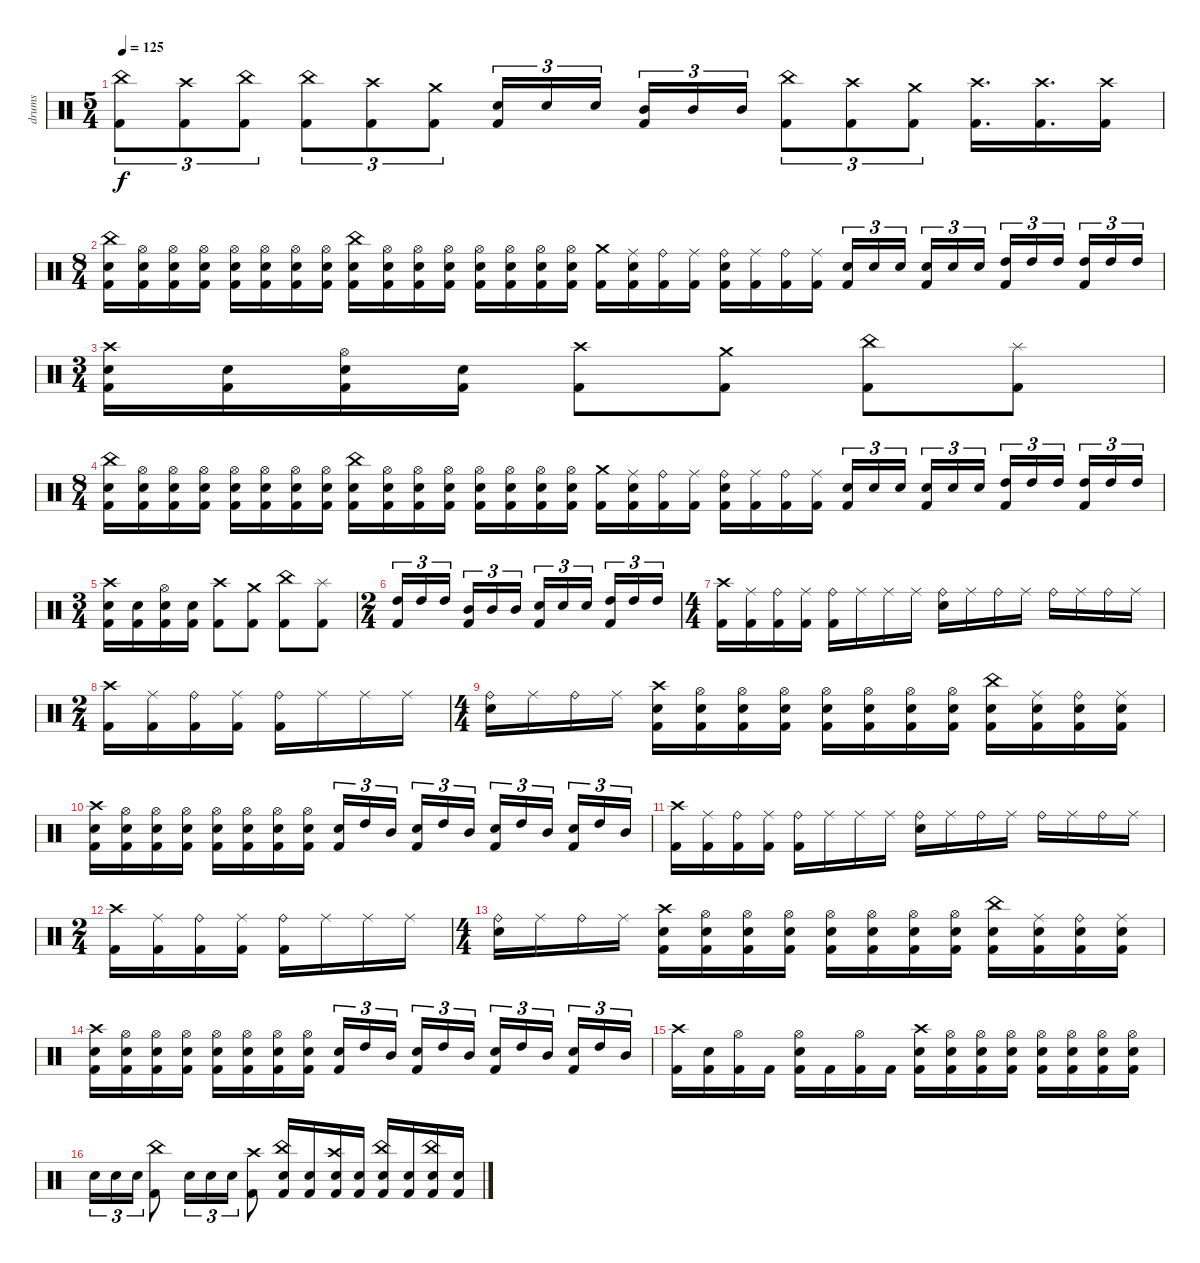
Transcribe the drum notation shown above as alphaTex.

\track (" drums" " drums") {mute instrument percussion}
\staff {score}
\articulation defaults
\ts (5 4)
\tempo 125
\clef neutral
\ks c
("Kick (hit) 2" "China (hit)").8{tu (3 2) dy f} ("Kick (hit) 2" "Crash high (hit)").8{tu (3 2)} ("Kick (hit) 2" "China (hit)").8{tu (3 2)} ("Kick (hit) 2" "China (hit)").8{tu (3 2)} ("Kick (hit) 2" "Crash high (hit)").8{tu (3 2)} ("Kick (hit) 2" "Crash medium (hit)").8{tu (3 2)} ("Kick (hit) 2" "Electric Snare (hit)").16{tu (3 2)} "Electric Snare (hit)".16{tu (3 2)} "Electric Snare (hit)".16{tu (3 2) beam splitsecondary} ("Kick (hit) 2" "Mid Tom (hit)").16{tu (3 2)} "Mid Tom (hit)".16{tu (3 2)} "Mid Tom (hit)".16{tu (3 2)} ("Kick (hit) 2" "China (hit)").8{tu (3 2)} ("Kick (hit) 2" "Crash high (hit)").8{tu (3 2)} ("Kick (hit) 2" "Crash medium (hit)").8{tu (3 2)} ("Crash high (hit)" "Kick (hit) 2").16{d} ("Crash high (hit)" "Kick (hit) 2").16{d} ("Crash high (hit)" "Kick (hit) 2").16 |
\ts (8 4)
("China (hit)" "Electric Snare (hit)" "Kick (hit) 2").16 ("Hi-Hat (open)" "Electric Snare (hit)" "Kick (hit) 2").16 ("Hi-Hat (open)" "Electric Snare (hit)" "Kick (hit) 2").16 ("Hi-Hat (open)" "Electric Snare (hit)" "Kick (hit) 2").16 ("Hi-Hat (open)" "Electric Snare (hit)" "Kick (hit) 2").16 ("Hi-Hat (open)" "Electric Snare (hit)" "Kick (hit) 2").16 ("Hi-Hat (open)" "Electric Snare (hit)" "Kick (hit) 2").16 ("Hi-Hat (open)" "Electric Snare (hit)" "Kick (hit) 2").16 ("China (hit)" "Electric Snare (hit)" "Kick (hit) 2").16 ("Hi-Hat (open)" "Electric Snare (hit)" "Kick (hit) 2").16 ("Hi-Hat (open)" "Electric Snare (hit)" "Kick (hit) 2").16 ("Hi-Hat (open)" "Electric Snare (hit)" "Kick (hit) 2").16 ("Hi-Hat (open)" "Electric Snare (hit)" "Kick (hit) 2").16 ("Hi-Hat (open)" "Electric Snare (hit)" "Kick (hit) 2").16 ("Hi-Hat (open)" "Electric Snare (hit)" "Kick (hit) 2").16 ("Hi-Hat (open)" "Electric Snare (hit)" "Kick (hit) 2").16 ("Crash medium (hit)" "Kick (hit) 2").16 ("Ride (middle)" "Electric Snare (hit)" "Kick (hit) 2").16 ("Ride (bell)" "Kick (hit) 2").16 ("Ride (middle)" "Kick (hit) 2").16 ("Ride (bell)" "Electric Snare (hit)" "Kick (hit) 2").16 ("Ride (middle)" "Kick (hit) 2").16 ("Ride (bell)" "Kick (hit) 2").16 ("Ride (middle)" "Kick (hit) 2").16 ("Electric Snare (hit)" "Kick (hit) 2").16{tu (3 2)} "Electric Snare (hit)".16{tu (3 2)} "Electric Snare (hit)".16{tu (3 2) beam splitsecondary} ("Kick (hit) 2" "Electric Snare (hit)").16{tu (3 2)} "Electric Snare (hit)".16{tu (3 2)} "Electric Snare (hit)".16{tu (3 2)} ("High Tom (hit)" "Kick (hit) 2").16{tu (3 2)} "High Tom (hit)".16{tu (3 2)} "High Tom (hit)".16{tu (3 2) beam splitsecondary} ("Kick (hit) 2" "High Tom (hit)").16{tu (3 2)} "High Tom (hit)".16{tu (3 2)} "High Tom (hit)".16{tu (3 2)} |
\ts (3 4)
("Electric Snare (hit)" "Crash high (hit)" "Kick (hit) 2").16 ("Electric Snare (hit)" "Kick (hit) 2").16 ("Electric Snare (hit)" "Hi-Hat (open)" "Kick (hit) 2").16 ("Electric Snare (hit)" "Kick (hit) 2").16 ("Kick (hit) 2" "Crash high (hit)").8 ("Kick (hit) 2" "Crash medium (hit)").8 ("Kick (hit) 2" "China (hit)").8 ("Kick (hit) 2" "Splash (hit)").8 |
\ts (8 4)
("China (hit)" "Electric Snare (hit)" "Kick (hit) 2").16 ("Hi-Hat (open)" "Electric Snare (hit)" "Kick (hit) 2").16 ("Hi-Hat (open)" "Electric Snare (hit)" "Kick (hit) 2").16 ("Hi-Hat (open)" "Electric Snare (hit)" "Kick (hit) 2").16 ("Hi-Hat (open)" "Electric Snare (hit)" "Kick (hit) 2").16 ("Hi-Hat (open)" "Electric Snare (hit)" "Kick (hit) 2").16 ("Hi-Hat (open)" "Electric Snare (hit)" "Kick (hit) 2").16 ("Hi-Hat (open)" "Electric Snare (hit)" "Kick (hit) 2").16 ("China (hit)" "Electric Snare (hit)" "Kick (hit) 2").16 ("Hi-Hat (open)" "Electric Snare (hit)" "Kick (hit) 2").16 ("Hi-Hat (open)" "Electric Snare (hit)" "Kick (hit) 2").16 ("Hi-Hat (open)" "Electric Snare (hit)" "Kick (hit) 2").16 ("Hi-Hat (open)" "Electric Snare (hit)" "Kick (hit) 2").16 ("Hi-Hat (open)" "Electric Snare (hit)" "Kick (hit) 2").16 ("Hi-Hat (open)" "Electric Snare (hit)" "Kick (hit) 2").16 ("Hi-Hat (open)" "Electric Snare (hit)" "Kick (hit) 2").16 ("Crash medium (hit)" "Kick (hit) 2").16 ("Ride (middle)" "Electric Snare (hit)" "Kick (hit) 2").16 ("Ride (bell)" "Kick (hit) 2").16 ("Ride (middle)" "Kick (hit) 2").16 ("Ride (bell)" "Electric Snare (hit)" "Kick (hit) 2").16 ("Ride (middle)" "Kick (hit) 2").16 ("Ride (bell)" "Kick (hit) 2").16 ("Ride (middle)" "Kick (hit) 2").16 ("Electric Snare (hit)" "Kick (hit) 2").16{tu (3 2)} "Electric Snare (hit)".16{tu (3 2)} "Electric Snare (hit)".16{tu (3 2) beam splitsecondary} ("Kick (hit) 2" "Electric Snare (hit)").16{tu (3 2)} "Electric Snare (hit)".16{tu (3 2)} "Electric Snare (hit)".16{tu (3 2)} ("High Tom (hit)" "Kick (hit) 2").16{tu (3 2)} "High Tom (hit)".16{tu (3 2)} "High Tom (hit)".16{tu (3 2) beam splitsecondary} ("Kick (hit) 2" "High Tom (hit)").16{tu (3 2)} "High Tom (hit)".16{tu (3 2)} "High Tom (hit)".16{tu (3 2)} |
\ts (3 4)
("Electric Snare (hit)" "Crash high (hit)" "Kick (hit) 2").16 ("Electric Snare (hit)" "Kick (hit) 2").16 ("Electric Snare (hit)" "Hi-Hat (open)" "Kick (hit) 2").16 ("Electric Snare (hit)" "Kick (hit) 2").16 ("Kick (hit) 2" "Crash high (hit)").8 ("Kick (hit) 2" "Crash medium (hit)").8 ("Kick (hit) 2" "China (hit)").8 ("Kick (hit) 2" "Splash (hit)").8 |
\ts (2 4)
("High Tom (hit)" "Kick (hit) 2").16{tu (3 2)} "High Tom (hit)".16{tu (3 2)} "High Tom (hit)".16{tu (3 2) beam splitsecondary} ("Mid Tom (hit)" "Kick (hit) 2").16{tu (3 2)} "Mid Tom (hit)".16{tu (3 2)} "Mid Tom (hit)".16{tu (3 2)} ("Electric Snare (hit)" "Kick (hit) 2").16{tu (3 2)} "Electric Snare (hit)".16{tu (3 2)} "Electric Snare (hit)".16{tu (3 2) beam splitsecondary} ("High Tom (hit)" "Kick (hit) 2").16{tu (3 2)} "High Tom (hit)".16{tu (3 2)} "High Tom (hit)".16{tu (3 2)} |
\ts (4 4)
("Kick (hit) 2" "Crash high (hit)").16 ("Kick (hit) 2" "Ride (middle)").16 ("Kick (hit) 2" "Ride (bell)").16 ("Kick (hit) 2" "Ride (middle)").16 ("Kick (hit) 2" "Ride (bell)").16 "Ride (middle)".16 "Ride (middle)".16 "Ride (middle)".16 ("Electric Snare (hit)" "Ride (bell)").16 "Ride (middle)".16 "Ride (bell)".16 "Ride (middle)".16 "Ride (bell)".16 "Ride (middle)".16 "Ride (bell)".16 "Ride (middle)".16 |
\ts (2 4)
("Kick (hit) 2" "Crash high (hit)").16 ("Kick (hit) 2" "Ride (middle)").16 ("Kick (hit) 2" "Ride (bell)").16 ("Kick (hit) 2" "Ride (middle)").16 ("Kick (hit) 2" "Ride (bell)").16 "Ride (middle)".16 "Ride (middle)".16 "Ride (middle)".16 |
\ts (4 4)
("Electric Snare (hit)" "Ride (bell)").16 "Ride (middle)".16 "Ride (bell)".16 "Ride (middle)".16 ("Kick (hit) 2" "Electric Snare (hit)" "Crash high (hit)").16 ("Kick (hit) 2" "Electric Snare (hit)" "Hi-Hat (open)").16 ("Kick (hit) 2" "Electric Snare (hit)" "Hi-Hat (open)").16 ("Kick (hit) 2" "Electric Snare (hit)" "Hi-Hat (open)").16 ("Kick (hit) 2" "Electric Snare (hit)" "Hi-Hat (open)").16 ("Kick (hit) 2" "Electric Snare (hit)" "Hi-Hat (open)").16 ("Kick (hit) 2" "Electric Snare (hit)" "Hi-Hat (open)").16 ("Kick (hit) 2" "Electric Snare (hit)" "Hi-Hat (open)").16 ("Kick (hit) 2" "Electric Snare (hit)" "China (hit)").16 ("Kick (hit) 2" "Electric Snare (hit)" "Ride (middle)").16 ("Kick (hit) 2" "Electric Snare (hit)" "Ride (bell)").16 ("Kick (hit) 2" "Electric Snare (hit)" "Ride (middle)").16 |
("Kick (hit) 2" "Electric Snare (hit)" "Crash high (hit)").16 ("Kick (hit) 2" "Electric Snare (hit)" "Hi-Hat (open)").16 ("Kick (hit) 2" "Electric Snare (hit)" "Hi-Hat (open)").16 ("Kick (hit) 2" "Electric Snare (hit)" "Hi-Hat (open)").16 ("Kick (hit) 2" "Electric Snare (hit)" "Hi-Hat (open)").16 ("Kick (hit) 2" "Electric Snare (hit)" "Hi-Hat (open)").16 ("Kick (hit) 2" "Electric Snare (hit)" "Hi-Hat (open)").16 ("Kick (hit) 2" "Electric Snare (hit)" "Hi-Hat (open)").16 ("Electric Snare (hit)" "Kick (hit) 2").16{tu (3 2)} "High Tom (hit)".16{tu (3 2)} "Mid Tom (hit)".16{tu (3 2) beam splitsecondary} ("Electric Snare (hit)" "Kick (hit) 2").16{tu (3 2)} "High Tom (hit)".16{tu (3 2)} "Mid Tom (hit)".16{tu (3 2)} ("Electric Snare (hit)" "Kick (hit) 2").16{tu (3 2)} "High Tom (hit)".16{tu (3 2)} "Mid Tom (hit)".16{tu (3 2) beam splitsecondary} ("Electric Snare (hit)" "Kick (hit) 2").16{tu (3 2)} "High Tom (hit)".16{tu (3 2)} "Mid Tom (hit)".16{tu (3 2)} |
("Kick (hit) 2" "Crash high (hit)").16 ("Kick (hit) 2" "Ride (middle)").16 ("Kick (hit) 2" "Ride (bell)").16 ("Kick (hit) 2" "Ride (middle)").16 ("Kick (hit) 2" "Ride (bell)").16 "Ride (middle)".16 "Ride (middle)".16 "Ride (middle)".16 ("Electric Snare (hit)" "Ride (bell)").16 "Ride (middle)".16 "Ride (bell)".16 "Ride (middle)".16 "Ride (bell)".16 "Ride (middle)".16 "Ride (bell)".16 "Ride (middle)".16 |
\ts (2 4)
("Kick (hit) 2" "Crash high (hit)").16 ("Kick (hit) 2" "Ride (middle)").16 ("Kick (hit) 2" "Ride (bell)").16 ("Kick (hit) 2" "Ride (middle)").16 ("Kick (hit) 2" "Ride (bell)").16 "Ride (middle)".16 "Ride (middle)".16 "Ride (middle)".16 |
\ts (4 4)
("Electric Snare (hit)" "Ride (bell)").16 "Ride (middle)".16 "Ride (bell)".16 "Ride (middle)".16 ("Kick (hit) 2" "Electric Snare (hit)" "Crash high (hit)").16 ("Kick (hit) 2" "Electric Snare (hit)" "Hi-Hat (open)").16 ("Kick (hit) 2" "Electric Snare (hit)" "Hi-Hat (open)").16 ("Kick (hit) 2" "Electric Snare (hit)" "Hi-Hat (open)").16 ("Kick (hit) 2" "Electric Snare (hit)" "Hi-Hat (open)").16 ("Kick (hit) 2" "Electric Snare (hit)" "Hi-Hat (open)").16 ("Kick (hit) 2" "Electric Snare (hit)" "Hi-Hat (open)").16 ("Kick (hit) 2" "Electric Snare (hit)" "Hi-Hat (open)").16 ("Kick (hit) 2" "Electric Snare (hit)" "China (hit)").16 ("Kick (hit) 2" "Electric Snare (hit)" "Ride (middle)").16 ("Kick (hit) 2" "Electric Snare (hit)" "Ride (bell)").16 ("Kick (hit) 2" "Electric Snare (hit)" "Ride (middle)").16 |
("Kick (hit) 2" "Electric Snare (hit)" "Crash high (hit)").16 ("Kick (hit) 2" "Electric Snare (hit)" "Hi-Hat (open)").16 ("Kick (hit) 2" "Electric Snare (hit)" "Hi-Hat (open)").16 ("Kick (hit) 2" "Electric Snare (hit)" "Hi-Hat (open)").16 ("Kick (hit) 2" "Electric Snare (hit)" "Hi-Hat (open)").16 ("Kick (hit) 2" "Electric Snare (hit)" "Hi-Hat (open)").16 ("Kick (hit) 2" "Electric Snare (hit)" "Hi-Hat (open)").16 ("Kick (hit) 2" "Electric Snare (hit)" "Hi-Hat (open)").16 ("Electric Snare (hit)" "Kick (hit) 2").16{tu (3 2)} "High Tom (hit)".16{tu (3 2)} "Mid Tom (hit)".16{tu (3 2) beam splitsecondary} ("Electric Snare (hit)" "Kick (hit) 2").16{tu (3 2)} "High Tom (hit)".16{tu (3 2)} "Mid Tom (hit)".16{tu (3 2)} ("Electric Snare (hit)" "Kick (hit) 2").16{tu (3 2)} "High Tom (hit)".16{tu (3 2)} "Mid Tom (hit)".16{tu (3 2) beam splitsecondary} ("Electric Snare (hit)" "Kick (hit) 2").16{tu (3 2)} "High Tom (hit)".16{tu (3 2)} "Mid Tom (hit)".16{tu (3 2)} |
("Kick (hit) 2" "Crash high (hit)").16 ("Kick (hit) 2" "Electric Snare (hit)").16 ("Kick (hit) 2" "Hi-Hat (open)").16 "Kick (hit) 2".16 ("Kick (hit) 2" "Electric Snare (hit)" "Hi-Hat (open)").16 "Kick (hit) 2".16 ("Kick (hit) 2" "Hi-Hat (open)").16 "Kick (hit) 2".16 ("Kick (hit) 2" "Electric Snare (hit)" "Crash high (hit)").16 ("Kick (hit) 2" "Electric Snare (hit)" "Hi-Hat (open)").16 ("Kick (hit) 2" "Electric Snare (hit)" "Hi-Hat (open)").16 ("Kick (hit) 2" "Electric Snare (hit)" "Hi-Hat (open)").16 ("Kick (hit) 2" "Electric Snare (hit)" "Hi-Hat (open)").16 ("Kick (hit) 2" "Electric Snare (hit)" "Hi-Hat (open)").16 ("Kick (hit) 2" "Electric Snare (hit)" "Hi-Hat (open)").16 ("Kick (hit) 2" "Electric Snare (hit)" "Hi-Hat (open)").16 |
"Electric Snare (hit)".16{tu (3 2)} "Electric Snare (hit)".16{tu (3 2)} "Electric Snare (hit)".16{tu (3 2)} ("Kick (hit) 2" "China (hit)").8 "Electric Snare (hit)".16{tu (3 2)} "Electric Snare (hit)".16{tu (3 2)} "Electric Snare (hit)".16{tu (3 2)} ("Kick (hit) 2" "Crash high (hit)").8 ("Kick (hit) 2" "Electric Snare (hit)" "China (hit)").16 ("Kick (hit) 2" "Electric Snare (hit)").16 ("Kick (hit) 2" "Electric Snare (hit)" "Crash high (hit)").16 ("Kick (hit) 2" "Electric Snare (hit)").16 ("Kick (hit) 2" "Electric Snare (hit)" "China (hit)").16 ("Kick (hit) 2" "Electric Snare (hit)").16 ("Kick (hit) 2" "Electric Snare (hit)" "China (hit)").16 ("Kick (hit) 2" "Electric Snare (hit)").16
